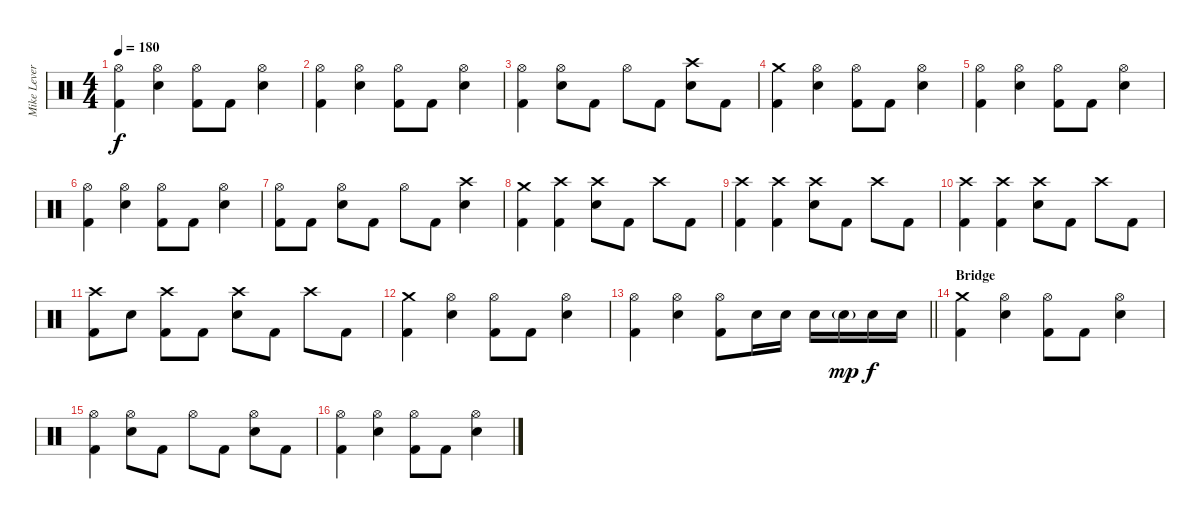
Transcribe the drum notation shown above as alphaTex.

\track ("Mike Leverence - Drums" "Mike Lever") {instrument percussion}
\staff {score}
\articulation defaults
\ts (4 4)
\tempo 180
\clef neutral
\ks c
("Hi-Hat (open)" "Kick (hit) 2").4{dy f} ("Hi-Hat (open)" "Electric Snare (hit)").4 ("Hi-Hat (open)" "Kick (hit) 2").8 "Kick (hit) 2".8 ("Hi-Hat (open)" "Electric Snare (hit)").4 |
("Hi-Hat (open)" "Kick (hit) 2").4 ("Hi-Hat (open)" "Electric Snare (hit)").4 ("Hi-Hat (open)" "Kick (hit) 2").8 "Kick (hit) 2".8 ("Hi-Hat (open)" "Electric Snare (hit)").4 |
("Hi-Hat (open)" "Kick (hit) 2").4 ("Hi-Hat (open)" "Electric Snare (hit)").8 "Kick (hit) 2".8 "Hi-Hat (open)".8 "Kick (hit) 2".8 ("Crash high (hit)" "Electric Snare (hit)").8 "Kick (hit) 2".8 |
("Crash medium (hit)" "Kick (hit) 2").4 ("Hi-Hat (open)" "Electric Snare (hit)").4 ("Hi-Hat (open)" "Kick (hit) 2").8 "Kick (hit) 2".8 ("Hi-Hat (open)" "Electric Snare (hit)").4 |
("Hi-Hat (open)" "Kick (hit) 2").4 ("Hi-Hat (open)" "Electric Snare (hit)").4 ("Hi-Hat (open)" "Kick (hit) 2").8 "Kick (hit) 2".8 ("Hi-Hat (open)" "Electric Snare (hit)").4 |
("Hi-Hat (open)" "Kick (hit) 2").4 ("Hi-Hat (open)" "Electric Snare (hit)").4 ("Hi-Hat (open)" "Kick (hit) 2").8 "Kick (hit) 2".8 ("Hi-Hat (open)" "Electric Snare (hit)").4 |
("Hi-Hat (open)" "Kick (hit) 2").8 "Kick (hit) 2".8 ("Hi-Hat (open)" "Electric Snare (hit)").8 "Kick (hit) 2".8 "Hi-Hat (open)".8 "Kick (hit) 2".8 ("Crash high (hit)" "Electric Snare (hit)").4 |
("Crash medium (hit)" "Kick (hit) 2").4 ("Crash high (hit)" "Kick (hit) 2").4 ("Crash high (hit)" "Electric Snare (hit)").8 "Kick (hit) 2".8 "Crash high (hit)".8 "Kick (hit) 2".8 |
("Crash high (hit)" "Kick (hit) 2").4 ("Crash high (hit)" "Kick (hit) 2").4 ("Crash high (hit)" "Electric Snare (hit)").8 "Kick (hit) 2".8 "Crash high (hit)".8 "Kick (hit) 2".8 |
("Crash high (hit)" "Kick (hit) 2").4 ("Crash high (hit)" "Kick (hit) 2").4 ("Crash high (hit)" "Electric Snare (hit)").8 "Kick (hit) 2".8 "Crash high (hit)".8 "Kick (hit) 2".8 |
("Crash high (hit)" "Kick (hit) 2").8 "Electric Snare (hit)".8 ("Crash high (hit)" "Kick (hit) 2").8 "Kick (hit) 2".8 ("Crash high (hit)" "Electric Snare (hit)").8 "Kick (hit) 2".8 "Crash high (hit)".8 "Kick (hit) 2".8 |
("Crash medium (hit)" "Kick (hit) 2").4 ("Hi-Hat (open)" "Electric Snare (hit)").4 ("Hi-Hat (open)" "Kick (hit) 2").8 "Kick (hit) 2".8 ("Hi-Hat (open)" "Electric Snare (hit)").4 |
\barLineRight lightlight
("Hi-Hat (open)" "Kick (hit) 2").4 ("Hi-Hat (open)" "Electric Snare (hit)").4 ("Hi-Hat (open)" "Kick (hit) 2").8 "Electric Snare (hit)".16 "Electric Snare (hit)".16 "Electric Snare (hit)".16 "Electric Snare (hit)"{g}.16{dy mp} "Electric Snare (hit)".16{dy f} "Electric Snare (hit)".16 |
\section ("" "Bridge")
("Crash medium (hit)" "Kick (hit) 2").4 ("Hi-Hat (open)" "Electric Snare (hit)").4 ("Hi-Hat (open)" "Kick (hit) 2").8 "Kick (hit) 2".8 ("Hi-Hat (open)" "Electric Snare (hit)").4 |
("Hi-Hat (open)" "Kick (hit) 2").4 ("Hi-Hat (open)" "Electric Snare (hit)").8 "Kick (hit) 2".8 "Hi-Hat (open)".8 "Kick (hit) 2".8 ("Hi-Hat (open)" "Electric Snare (hit)").8 "Kick (hit) 2".8 |
("Hi-Hat (open)" "Kick (hit) 2").4 ("Hi-Hat (open)" "Electric Snare (hit)").4 ("Hi-Hat (open)" "Kick (hit) 2").8 "Kick (hit) 2".8 ("Hi-Hat (open)" "Electric Snare (hit)").4
